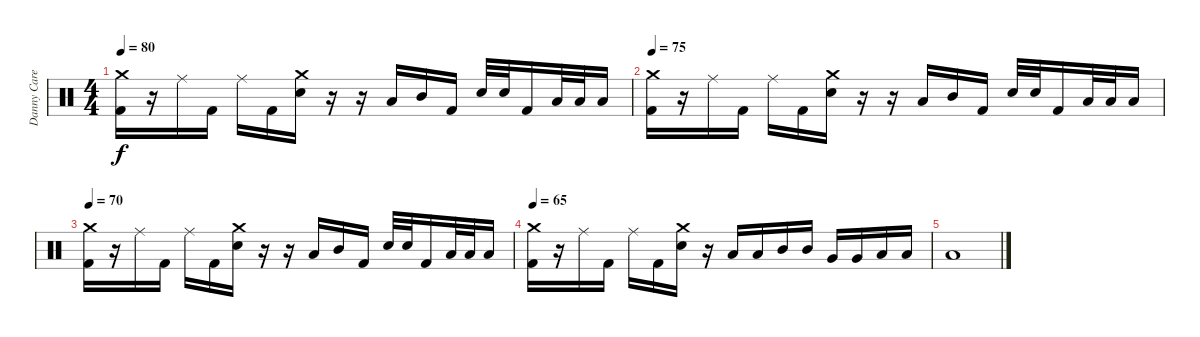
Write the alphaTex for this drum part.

\track ("Danny Carey" "Danny Care") {instrument percussion}
\staff {score}
\articulation defaults
\ts (4 4)
\tempo 80
\clef neutral
\ks c
("Crash medium (hit)" "Kick (hit) 2").16{dy f} r.16 "Ride (middle)".16 "Kick (hit) 2".16 "Ride (middle)".16 "Kick (hit) 2".16 ("Crash medium (hit)" "Snare (hit) 2").16 r.16 r.16 "Low Tom (hit)".16 "Mid Tom (hit)".16 "Kick (hit) 2".16 "Snare (hit) 2".32 "Snare (hit) 2".32 "Kick (hit) 2".16 "Low Floor Tom (hit)".32 "Low Floor Tom (hit)".32 "Low Floor Tom (hit)".16 |
\tempo 75
("Crash medium (hit)" "Kick (hit) 2").16 r.16 "Ride (middle)".16 "Kick (hit) 2".16 "Ride (middle)".16 "Kick (hit) 2".16 ("Crash medium (hit)" "Snare (hit) 2").16 r.16 r.16 "Low Tom (hit)".16 "Mid Tom (hit)".16 "Kick (hit) 2".16 "Snare (hit) 2".32 "Snare (hit) 2".32 "Kick (hit) 2".16 "Low Floor Tom (hit)".32 "Low Floor Tom (hit)".32 "Low Floor Tom (hit)".16 |
\tempo 70
("Crash medium (hit)" "Kick (hit) 2").16 r.16 "Ride (middle)".16 "Kick (hit) 2".16 "Ride (middle)".16 "Kick (hit) 2".16 ("Crash medium (hit)" "Snare (hit) 2").16 r.16 r.16 "Low Tom (hit)".16 "Mid Tom (hit)".16 "Kick (hit) 2".16 "Snare (hit) 2".32 "Snare (hit) 2".32 "Kick (hit) 2".16 "Low Floor Tom (hit)".32 "Low Floor Tom (hit)".32 "Low Floor Tom (hit)".16 |
\tempo 65
("Crash medium (hit)" "Kick (hit) 2").16 r.16 "Ride (middle)".16 "Kick (hit) 2".16 "Ride (middle)".16 "Kick (hit) 2".16 ("Crash medium (hit)" "Snare (hit) 2").16 r.16 "Low Tom (hit)".16 "Low Tom (hit)".16 "Mid Tom (hit)".16 "Mid Tom (hit)".16 "Very Low Tom (hit)".16 "Very Low Tom (hit)".16 "Low Floor Tom (hit)".16 "Low Floor Tom (hit)".16 |
"Low Floor Tom (hit)".1
